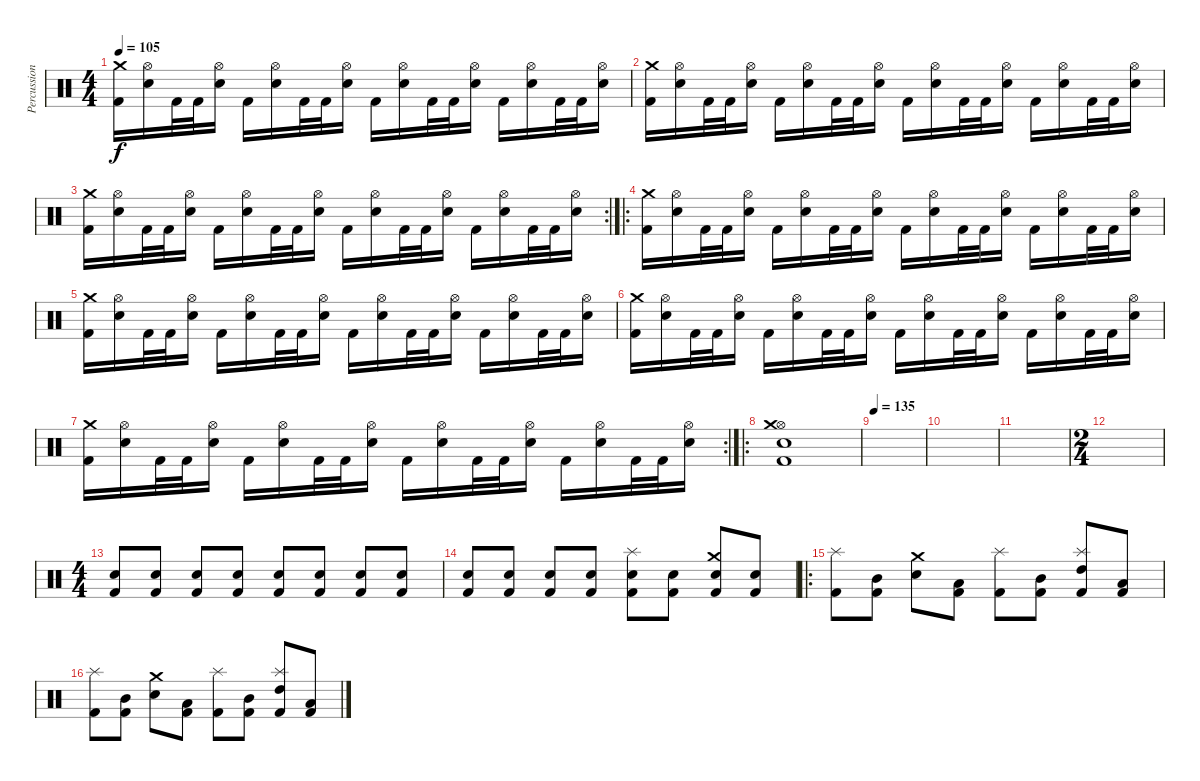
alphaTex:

\track ("Percussion" "Percussion") {instrument percussion}
\staff {score}
\articulation defaults
\ts (4 4)
\tempo 105
\clef neutral
\ks c
("Kick (hit) 2" "Crash medium (hit)").16{dy f} ("Electric Snare (hit)" "Hi-Hat (open)").16 "Kick (hit) 2".32 "Kick (hit) 2".32 ("Electric Snare (hit)" "Hi-Hat (open)").16 "Kick (hit) 2".16 ("Electric Snare (hit)" "Hi-Hat (open)").16 "Kick (hit) 2".32 "Kick (hit) 2".32 ("Electric Snare (hit)" "Hi-Hat (open)").16 "Kick (hit) 2".16 ("Electric Snare (hit)" "Hi-Hat (open)").16 "Kick (hit) 2".32 "Kick (hit) 2".32 ("Electric Snare (hit)" "Hi-Hat (open)").16 "Kick (hit) 2".16 ("Electric Snare (hit)" "Hi-Hat (open)").16 "Kick (hit) 2".32 "Kick (hit) 2".32 ("Electric Snare (hit)" "Hi-Hat (open)").16 |
("Kick (hit) 2" "Crash medium (hit)").16 ("Electric Snare (hit)" "Hi-Hat (open)").16 "Kick (hit) 2".32 "Kick (hit) 2".32 ("Electric Snare (hit)" "Hi-Hat (open)").16 "Kick (hit) 2".16 ("Electric Snare (hit)" "Hi-Hat (open)").16 "Kick (hit) 2".32 "Kick (hit) 2".32 ("Electric Snare (hit)" "Hi-Hat (open)").16 "Kick (hit) 2".16 ("Electric Snare (hit)" "Hi-Hat (open)").16 "Kick (hit) 2".32 "Kick (hit) 2".32 ("Electric Snare (hit)" "Hi-Hat (open)").16 "Kick (hit) 2".16 ("Electric Snare (hit)" "Hi-Hat (open)").16 "Kick (hit) 2".32 "Kick (hit) 2".32 ("Electric Snare (hit)" "Hi-Hat (open)").16 |
\rc 2
("Kick (hit) 2" "Crash medium (hit)").16 ("Electric Snare (hit)" "Hi-Hat (open)").16 "Kick (hit) 2".32 "Kick (hit) 2".32 ("Electric Snare (hit)" "Hi-Hat (open)").16 "Kick (hit) 2".16 ("Electric Snare (hit)" "Hi-Hat (open)").16 "Kick (hit) 2".32 "Kick (hit) 2".32 ("Electric Snare (hit)" "Hi-Hat (open)").16 "Kick (hit) 2".16 ("Electric Snare (hit)" "Hi-Hat (open)").16 "Kick (hit) 2".32 "Kick (hit) 2".32 ("Electric Snare (hit)" "Hi-Hat (open)").16 "Kick (hit) 2".16 ("Electric Snare (hit)" "Hi-Hat (open)").16 "Kick (hit) 2".32 "Kick (hit) 2".32 ("Electric Snare (hit)" "Hi-Hat (open)").16 |
\ro
("Kick (hit) 2" "Crash medium (hit)").16 ("Electric Snare (hit)" "Hi-Hat (open)").16 "Kick (hit) 2".32 "Kick (hit) 2".32 ("Electric Snare (hit)" "Hi-Hat (open)").16 "Kick (hit) 2".16 ("Electric Snare (hit)" "Hi-Hat (open)").16 "Kick (hit) 2".32 "Kick (hit) 2".32 ("Electric Snare (hit)" "Hi-Hat (open)").16 "Kick (hit) 2".16 ("Electric Snare (hit)" "Hi-Hat (open)").16 "Kick (hit) 2".32 "Kick (hit) 2".32 ("Electric Snare (hit)" "Hi-Hat (open)").16 "Kick (hit) 2".16 ("Electric Snare (hit)" "Hi-Hat (open)").16 "Kick (hit) 2".32 "Kick (hit) 2".32 ("Electric Snare (hit)" "Hi-Hat (open)").16 |
("Kick (hit) 2" "Crash medium (hit)").16 ("Electric Snare (hit)" "Hi-Hat (open)").16 "Kick (hit) 2".32 "Kick (hit) 2".32 ("Electric Snare (hit)" "Hi-Hat (open)").16 "Kick (hit) 2".16 ("Electric Snare (hit)" "Hi-Hat (open)").16 "Kick (hit) 2".32 "Kick (hit) 2".32 ("Electric Snare (hit)" "Hi-Hat (open)").16 "Kick (hit) 2".16 ("Electric Snare (hit)" "Hi-Hat (open)").16 "Kick (hit) 2".32 "Kick (hit) 2".32 ("Electric Snare (hit)" "Hi-Hat (open)").16 "Kick (hit) 2".16 ("Electric Snare (hit)" "Hi-Hat (open)").16 "Kick (hit) 2".32 "Kick (hit) 2".32 ("Electric Snare (hit)" "Hi-Hat (open)").16 |
("Kick (hit) 2" "Crash medium (hit)").16 ("Electric Snare (hit)" "Hi-Hat (open)").16 "Kick (hit) 2".32 "Kick (hit) 2".32 ("Electric Snare (hit)" "Hi-Hat (open)").16 "Kick (hit) 2".16 ("Electric Snare (hit)" "Hi-Hat (open)").16 "Kick (hit) 2".32 "Kick (hit) 2".32 ("Electric Snare (hit)" "Hi-Hat (open)").16 "Kick (hit) 2".16 ("Electric Snare (hit)" "Hi-Hat (open)").16 "Kick (hit) 2".32 "Kick (hit) 2".32 ("Electric Snare (hit)" "Hi-Hat (open)").16 "Kick (hit) 2".16 ("Electric Snare (hit)" "Hi-Hat (open)").16 "Kick (hit) 2".32 "Kick (hit) 2".32 ("Electric Snare (hit)" "Hi-Hat (open)").16 |
\rc 2
("Kick (hit) 2" "Crash medium (hit)").16 ("Electric Snare (hit)" "Hi-Hat (open)").16 "Kick (hit) 2".32 "Kick (hit) 2".32 ("Electric Snare (hit)" "Hi-Hat (open)").16 "Kick (hit) 2".16 ("Electric Snare (hit)" "Hi-Hat (open)").16 "Kick (hit) 2".32 "Kick (hit) 2".32 ("Electric Snare (hit)" "Hi-Hat (open)").16 "Kick (hit) 2".16 ("Electric Snare (hit)" "Hi-Hat (open)").16 "Kick (hit) 2".32 "Kick (hit) 2".32 ("Electric Snare (hit)" "Hi-Hat (open)").16 "Kick (hit) 2".16 ("Electric Snare (hit)" "Hi-Hat (open)").16 "Kick (hit) 2".32 "Kick (hit) 2".32 ("Electric Snare (hit)" "Hi-Hat (open)").16 |
\ro
("Kick (hit) 2" "Electric Snare (hit)" "Hi-Hat (open)" "Crash medium (hit)").1 |
\tempo 135
|
|
|
\ts (2 4)
|
\ts (4 4)
("Kick (hit) 2" "Electric Snare (hit)").8 ("Kick (hit) 2" "Electric Snare (hit)").8 ("Kick (hit) 2" "Electric Snare (hit)").8 ("Kick (hit) 2" "Electric Snare (hit)").8 ("Kick (hit) 2" "Electric Snare (hit)").8 ("Kick (hit) 2" "Electric Snare (hit)").8 ("Kick (hit) 2" "Electric Snare (hit)").8 ("Kick (hit) 2" "Electric Snare (hit)").8 |
("Kick (hit) 2" "Electric Snare (hit)").8 ("Kick (hit) 2" "Electric Snare (hit)").8 ("Kick (hit) 2" "Electric Snare (hit)").8 ("Kick (hit) 2" "Electric Snare (hit)").8 ("Kick (hit) 2" "Electric Snare (hit)" "Splash (hit)").8 ("Kick (hit) 2" "Electric Snare (hit)").8 ("Kick (hit) 2" "Electric Snare (hit)" "Crash medium (hit)").8 ("Kick (hit) 2" "Electric Snare (hit)").8 |
\ro
("Kick (hit) 2" "Splash (hit)").8 ("Kick (hit) 2" "Mid Tom (hit)").8 ("Electric Snare (hit)" "Crash medium (hit)").8 ("Kick (hit) 2" "Low Tom (hit)").8 ("Kick (hit) 2" "Splash (hit)").8 ("Kick (hit) 2" "Mid Tom (hit)").8 ("Kick (hit) 2" "High Tom (hit)" "Splash (hit)").8 ("Kick (hit) 2" "Low Tom (hit)").8 |
("Kick (hit) 2" "Splash (hit)").8 ("Kick (hit) 2" "Mid Tom (hit)").8 ("Electric Snare (hit)" "Crash medium (hit)").8 ("Kick (hit) 2" "Low Tom (hit)").8 ("Kick (hit) 2" "Splash (hit)").8 ("Kick (hit) 2" "Mid Tom (hit)").8 ("Kick (hit) 2" "High Tom (hit)" "Splash (hit)").8 ("Kick (hit) 2" "Low Tom (hit)").8
